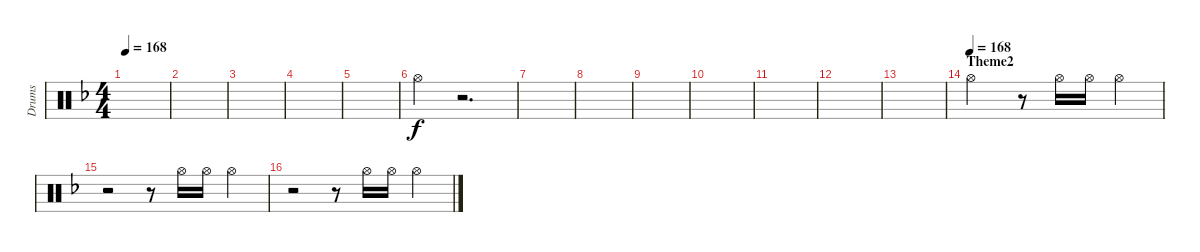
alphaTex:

\track ("Drums" "Drums") {instrument percussion}
\staff {score}
\articulation defaults
\ts (4 4)
\tempo 168
\clef neutral
\ks f
|
|
|
|
|
"Hi-Hat (open)".4 r.2{d} |
|
|
|
|
|
|
|
\section ("" "Theme2")
\tempo (168)
"Hi-Hat (open)".2 r.8 "Hi-Hat (open)".16 "Hi-Hat (open)".16 "Hi-Hat (open)".4 |
r.2 r.8 "Hi-Hat (open)".16 "Hi-Hat (open)".16 "Hi-Hat (open)".4 |
r.2 r.8 "Hi-Hat (open)".16 "Hi-Hat (open)".16 "Hi-Hat (open)".4
